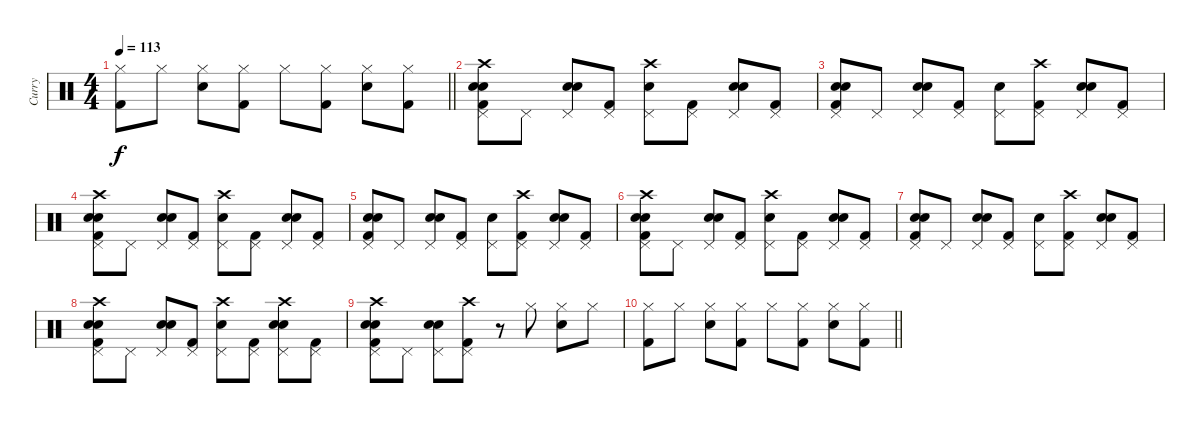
\track ("Curry" "Curry") {instrument percussion}
\staff {score}
\articulation defaults
\ts (4 4)
\tempo 113
\clef neutral
\barLineRight lightlight
\ks c
("Hi-Hat (closed)" "Kick (hit) 2").8{dy f} "Hi-Hat (closed)".8 ("Hi-Hat (closed)" "Snare (hit) 2").8 ("Hi-Hat (closed)" "Kick (hit) 2").8 "Hi-Hat (closed)".8 ("Hi-Hat (closed)" "Kick (hit) 2").8 ("Hi-Hat (closed)" "Snare (hit) 2").8 ("Hi-Hat (closed)" "Kick (hit) 2").8 |
("Pedal Hi-Hat (hit)" "Kick (hit) 2" "Electric Snare (hit)" "Snare (hit) 2" "Crash high (hit)").8 "Pedal Hi-Hat (hit)".8 ("Pedal Hi-Hat (hit)" "Electric Snare (hit)" "Snare (hit) 2").8 ("Pedal Hi-Hat (hit)" "Kick (hit) 2").8 ("Pedal Hi-Hat (hit)" "Snare (hit) 2" "Crash high (hit)").8 ("Pedal Hi-Hat (hit)" "Kick (hit) 2").8 ("Pedal Hi-Hat (hit)" "Electric Snare (hit)" "Snare (hit) 2").8 ("Pedal Hi-Hat (hit)" "Kick (hit) 2").8 |
("Pedal Hi-Hat (hit)" "Kick (hit) 2" "Electric Snare (hit)" "Snare (hit) 2").8 "Pedal Hi-Hat (hit)".8 ("Pedal Hi-Hat (hit)" "Electric Snare (hit)" "Snare (hit) 2").8 ("Pedal Hi-Hat (hit)" "Kick (hit) 2").8 ("Pedal Hi-Hat (hit)" "Snare (hit) 2").8 ("Pedal Hi-Hat (hit)" "Kick (hit) 2" "Crash high (hit)").8 ("Pedal Hi-Hat (hit)" "Electric Snare (hit)" "Snare (hit) 2").8 ("Pedal Hi-Hat (hit)" "Kick (hit) 2").8 |
("Pedal Hi-Hat (hit)" "Kick (hit) 2" "Electric Snare (hit)" "Snare (hit) 2" "Crash high (hit)").8 "Pedal Hi-Hat (hit)".8 ("Pedal Hi-Hat (hit)" "Electric Snare (hit)" "Snare (hit) 2").8 ("Pedal Hi-Hat (hit)" "Kick (hit) 2").8 ("Pedal Hi-Hat (hit)" "Snare (hit) 2" "Crash high (hit)").8 ("Pedal Hi-Hat (hit)" "Kick (hit) 2").8 ("Pedal Hi-Hat (hit)" "Electric Snare (hit)" "Snare (hit) 2").8 ("Pedal Hi-Hat (hit)" "Kick (hit) 2").8 |
("Pedal Hi-Hat (hit)" "Kick (hit) 2" "Electric Snare (hit)" "Snare (hit) 2").8 "Pedal Hi-Hat (hit)".8 ("Pedal Hi-Hat (hit)" "Electric Snare (hit)" "Snare (hit) 2").8 ("Pedal Hi-Hat (hit)" "Kick (hit) 2").8 ("Pedal Hi-Hat (hit)" "Snare (hit) 2").8 ("Pedal Hi-Hat (hit)" "Kick (hit) 2" "Crash high (hit)").8 ("Pedal Hi-Hat (hit)" "Electric Snare (hit)" "Snare (hit) 2").8 ("Pedal Hi-Hat (hit)" "Kick (hit) 2").8 |
("Pedal Hi-Hat (hit)" "Kick (hit) 2" "Electric Snare (hit)" "Snare (hit) 2" "Crash high (hit)").8 "Pedal Hi-Hat (hit)".8 ("Pedal Hi-Hat (hit)" "Electric Snare (hit)" "Snare (hit) 2").8 ("Pedal Hi-Hat (hit)" "Kick (hit) 2").8 ("Pedal Hi-Hat (hit)" "Snare (hit) 2" "Crash high (hit)").8 ("Pedal Hi-Hat (hit)" "Kick (hit) 2").8 ("Pedal Hi-Hat (hit)" "Electric Snare (hit)" "Snare (hit) 2").8 ("Pedal Hi-Hat (hit)" "Kick (hit) 2").8 |
("Pedal Hi-Hat (hit)" "Kick (hit) 2" "Electric Snare (hit)" "Snare (hit) 2").8 "Pedal Hi-Hat (hit)".8 ("Pedal Hi-Hat (hit)" "Electric Snare (hit)" "Snare (hit) 2").8 ("Pedal Hi-Hat (hit)" "Kick (hit) 2").8 ("Pedal Hi-Hat (hit)" "Snare (hit) 2").8 ("Pedal Hi-Hat (hit)" "Kick (hit) 2" "Crash high (hit)").8 ("Pedal Hi-Hat (hit)" "Electric Snare (hit)" "Snare (hit) 2").8 ("Pedal Hi-Hat (hit)" "Kick (hit) 2").8 |
("Pedal Hi-Hat (hit)" "Kick (hit) 2" "Electric Snare (hit)" "Snare (hit) 2" "Crash high (hit)").8 "Pedal Hi-Hat (hit)".8 ("Pedal Hi-Hat (hit)" "Electric Snare (hit)" "Snare (hit) 2").8 ("Pedal Hi-Hat (hit)" "Kick (hit) 2").8 ("Pedal Hi-Hat (hit)" "Snare (hit) 2" "Crash high (hit)").8 ("Pedal Hi-Hat (hit)" "Kick (hit) 2").8 ("Pedal Hi-Hat (hit)" "Electric Snare (hit)" "Snare (hit) 2" "Crash high (hit)").8 ("Pedal Hi-Hat (hit)" "Kick (hit) 2").8 |
("Pedal Hi-Hat (hit)" "Kick (hit) 2" "Electric Snare (hit)" "Snare (hit) 2" "Crash high (hit)").8 "Pedal Hi-Hat (hit)".8 ("Pedal Hi-Hat (hit)" "Electric Snare (hit)" "Snare (hit) 2").8 ("Pedal Hi-Hat (hit)" "Kick (hit) 2" "Crash high (hit)").8 r.8 "Hi-Hat (closed)".8 ("Hi-Hat (closed)" "Snare (hit) 2").8 "Hi-Hat (closed)".8 |
\barLineRight lightlight
("Hi-Hat (closed)" "Kick (hit) 2").8 "Hi-Hat (closed)".8 ("Hi-Hat (closed)" "Snare (hit) 2").8 ("Hi-Hat (closed)" "Kick (hit) 2").8 "Hi-Hat (closed)".8 ("Hi-Hat (closed)" "Kick (hit) 2").8 ("Hi-Hat (closed)" "Snare (hit) 2").8 ("Hi-Hat (closed)" "Kick (hit) 2").8
